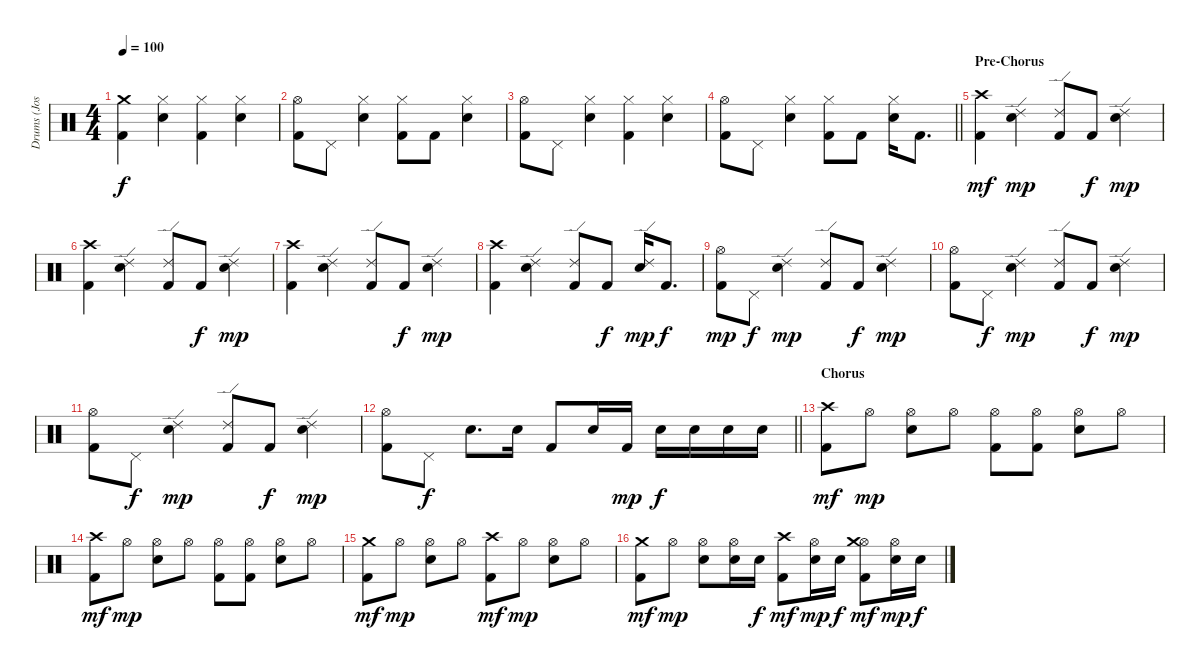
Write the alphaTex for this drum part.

\track ("Drums (Josh Freese)" "Drums (Jos") {instrument percussion}
\staff {score}
\articulation defaults
\ts (4 4)
\tempo 100
\clef neutral
\ks c
("Crash medium (hit)" "Kick (hit) 2").4{dy f} ("Hi-Hat (closed)" "Electric Snare (hit)").4 ("Hi-Hat (closed)" "Kick (hit) 2").4 ("Hi-Hat (closed)" "Electric Snare (hit)").4 |
("Hi-Hat (open)" "Kick (hit) 2").8 "Pedal Hi-Hat (hit)".8 ("Hi-Hat (closed)" "Electric Snare (hit)").4 ("Hi-Hat (closed)" "Kick (hit) 2").8 "Kick (hit) 2".8 ("Hi-Hat (closed)" "Electric Snare (hit)").4 |
("Hi-Hat (open)" "Kick (hit) 2").8 "Pedal Hi-Hat (hit)".8 ("Hi-Hat (closed)" "Electric Snare (hit)").4 ("Hi-Hat (closed)" "Kick (hit) 2").4 ("Hi-Hat (closed)" "Electric Snare (hit)").4 |
\barLineRight lightlight
("Hi-Hat (open)" "Kick (hit) 2").8 "Pedal Hi-Hat (hit)".8 ("Hi-Hat (closed)" "Electric Snare (hit)").4 ("Hi-Hat (closed)" "Kick (hit) 2").8 "Kick (hit) 2".8 ("Hi-Hat (closed)" "Electric Snare (hit)").16 "Kick (hit) 2".8{d} |
\section ("" "Pre-Chorus")
("Crash high (hit)" "Kick (hit) 2").4{dy mf} ("Ride (edge) 2" "Electric Snare (hit)").4{dy mp} ("Ride (edge) 2" "Kick (hit) 2").8 "Kick (hit) 2".8{dy f} ("Ride (edge) 2" "Electric Snare (hit)").4{dy mp} |
("Crash high (hit)" "Kick (hit) 2").4 ("Ride (edge) 2" "Electric Snare (hit)").4 ("Ride (edge) 2" "Kick (hit) 2").8 "Kick (hit) 2".8{dy f} ("Ride (edge) 2" "Electric Snare (hit)").4{dy mp} |
("Crash high (hit)" "Kick (hit) 2").4 ("Ride (edge) 2" "Electric Snare (hit)").4 ("Ride (edge) 2" "Kick (hit) 2").8 "Kick (hit) 2".8{dy f} ("Ride (edge) 2" "Electric Snare (hit)").4{dy mp} |
("Crash high (hit)" "Kick (hit) 2").4 ("Ride (edge) 2" "Electric Snare (hit)").4 ("Ride (edge) 2" "Kick (hit) 2").8 "Kick (hit) 2".8{dy f} ("Ride (edge) 2" "Electric Snare (hit)").16{dy mp} "Kick (hit) 2".8{d dy f} |
("Hi-Hat (open)" "Kick (hit) 2").8{dy mp} "Pedal Hi-Hat (hit)".8{dy f} ("Ride (edge) 2" "Electric Snare (hit)").4{dy mp} ("Ride (edge) 2" "Kick (hit) 2").8 "Kick (hit) 2".8{dy f} ("Ride (edge) 2" "Electric Snare (hit)").4{dy mp} |
("Hi-Hat (open)" "Kick (hit) 2").8 "Pedal Hi-Hat (hit)".8{dy f} ("Ride (edge) 2" "Electric Snare (hit)").4{dy mp} ("Ride (edge) 2" "Kick (hit) 2").8 "Kick (hit) 2".8{dy f} ("Ride (edge) 2" "Electric Snare (hit)").4{dy mp} |
("Hi-Hat (open)" "Kick (hit) 2").8 "Pedal Hi-Hat (hit)".8{dy f} ("Ride (edge) 2" "Electric Snare (hit)").4{dy mp} ("Ride (edge) 2" "Kick (hit) 2").8 "Kick (hit) 2".8{dy f} ("Ride (edge) 2" "Electric Snare (hit)").4{dy mp} |
\barLineRight lightlight
("Hi-Hat (open)" "Kick (hit) 2").8 "Pedal Hi-Hat (hit)".8{dy f} "Electric Snare (hit)".8{d} "Electric Snare (hit)".16 "Kick (hit) 2".8 "Electric Snare (hit)".16 "Kick (hit) 2".16{dy mp} "Electric Snare (hit)".16{dy f} "Electric Snare (hit)".16 "Electric Snare (hit)".16 "Electric Snare (hit)".16 |
\section ("" "Chorus")
("Crash high (hit)" "Kick (hit) 2").8{dy mf} "Hi-Hat (open)".8{dy mp} ("Hi-Hat (open)" "Electric Snare (hit)").8 "Hi-Hat (open)".8 ("Hi-Hat (open)" "Kick (hit) 2").8 ("Hi-Hat (open)" "Kick (hit) 2").8 ("Hi-Hat (open)" "Electric Snare (hit)").8 "Hi-Hat (open)".8 |
("Crash high (hit)" "Kick (hit) 2").8{dy mf} "Hi-Hat (open)".8{dy mp} ("Hi-Hat (open)" "Electric Snare (hit)").8 "Hi-Hat (open)".8 ("Hi-Hat (open)" "Kick (hit) 2").8 ("Hi-Hat (open)" "Kick (hit) 2").8 ("Hi-Hat (open)" "Electric Snare (hit)").8 "Hi-Hat (open)".8 |
("Crash medium (hit)" "Kick (hit) 2").8{dy mf} "Hi-Hat (open)".8{dy mp} ("Hi-Hat (open)" "Electric Snare (hit)").8 "Hi-Hat (open)".8 ("Crash high (hit)" "Kick (hit) 2").8{dy mf} "Hi-Hat (open)".8{dy mp} ("Hi-Hat (open)" "Electric Snare (hit)").8 "Hi-Hat (open)".8 |
("Crash medium (hit)" "Kick (hit) 2").8{dy mf} "Hi-Hat (open)".8{dy mp} ("Hi-Hat (open)" "Electric Snare (hit)").8 ("Hi-Hat (open)" "Electric Snare (hit)").16 "Electric Snare (hit)".16{dy f} ("Crash high (hit)" "Kick (hit) 2").8{dy mf} ("Hi-Hat (open)" "Electric Snare (hit)").16{dy mp} "Electric Snare (hit)".16{dy f} ("Hi-Hat (open)" "Crash medium (hit)" "Kick (hit) 2").8{dy mf} ("Hi-Hat (open)" "Electric Snare (hit)").16{dy mp} "Electric Snare (hit)".16{dy f}
